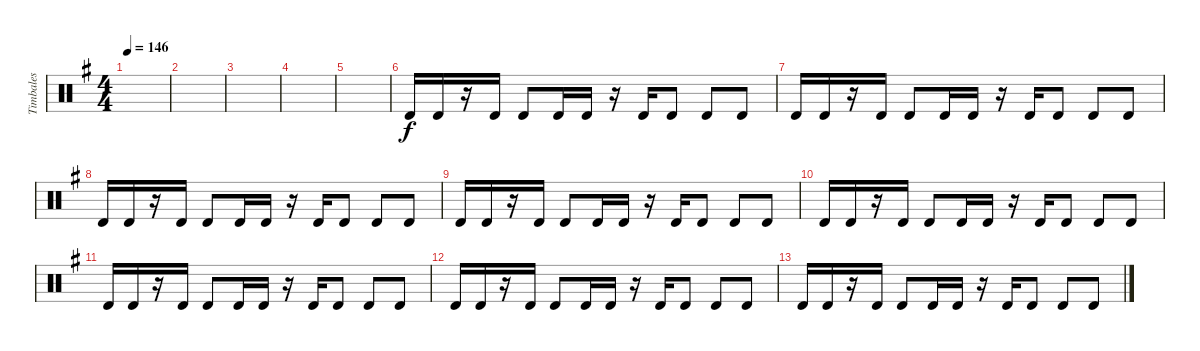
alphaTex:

\track ("Timbales" "Timbales") {instrument percussion}
\staff {score}
\articulation defaults
\ts (4 4)
\tempo 146
\clef neutral
\ks g
|
|
|
|
|
"Timbale high (hit)".16 "Timbale high (hit)".16 r.16 "Timbale high (hit)".16 "Timbale high (hit)".8 "Timbale high (hit)".16 "Timbale high (hit)".16 r.16 "Timbale high (hit)".16 "Timbale high (hit)".8 "Timbale high (hit)".8 "Timbale high (hit)".8 |
"Timbale high (hit)".16 "Timbale high (hit)".16 r.16 "Timbale high (hit)".16 "Timbale high (hit)".8 "Timbale high (hit)".16 "Timbale high (hit)".16 r.16 "Timbale high (hit)".16 "Timbale high (hit)".8 "Timbale high (hit)".8 "Timbale high (hit)".8 |
"Timbale high (hit)".16 "Timbale high (hit)".16 r.16 "Timbale high (hit)".16 "Timbale high (hit)".8 "Timbale high (hit)".16 "Timbale high (hit)".16 r.16 "Timbale high (hit)".16 "Timbale high (hit)".8 "Timbale high (hit)".8 "Timbale high (hit)".8 |
"Timbale high (hit)".16 "Timbale high (hit)".16 r.16 "Timbale high (hit)".16 "Timbale high (hit)".8 "Timbale high (hit)".16 "Timbale high (hit)".16 r.16 "Timbale high (hit)".16 "Timbale high (hit)".8 "Timbale high (hit)".8 "Timbale high (hit)".8 |
"Timbale high (hit)".16 "Timbale high (hit)".16 r.16 "Timbale high (hit)".16 "Timbale high (hit)".8 "Timbale high (hit)".16 "Timbale high (hit)".16 r.16 "Timbale high (hit)".16 "Timbale high (hit)".8 "Timbale high (hit)".8 "Timbale high (hit)".8 |
"Timbale high (hit)".16 "Timbale high (hit)".16 r.16 "Timbale high (hit)".16 "Timbale high (hit)".8 "Timbale high (hit)".16 "Timbale high (hit)".16 r.16 "Timbale high (hit)".16 "Timbale high (hit)".8 "Timbale high (hit)".8 "Timbale high (hit)".8 |
"Timbale high (hit)".16 "Timbale high (hit)".16 r.16 "Timbale high (hit)".16 "Timbale high (hit)".8 "Timbale high (hit)".16 "Timbale high (hit)".16 r.16 "Timbale high (hit)".16 "Timbale high (hit)".8 "Timbale high (hit)".8 "Timbale high (hit)".8 |
"Timbale high (hit)".16 "Timbale high (hit)".16 r.16 "Timbale high (hit)".16 "Timbale high (hit)".8 "Timbale high (hit)".16 "Timbale high (hit)".16 r.16 "Timbale high (hit)".16 "Timbale high (hit)".8 "Timbale high (hit)".8 "Timbale high (hit)".8
